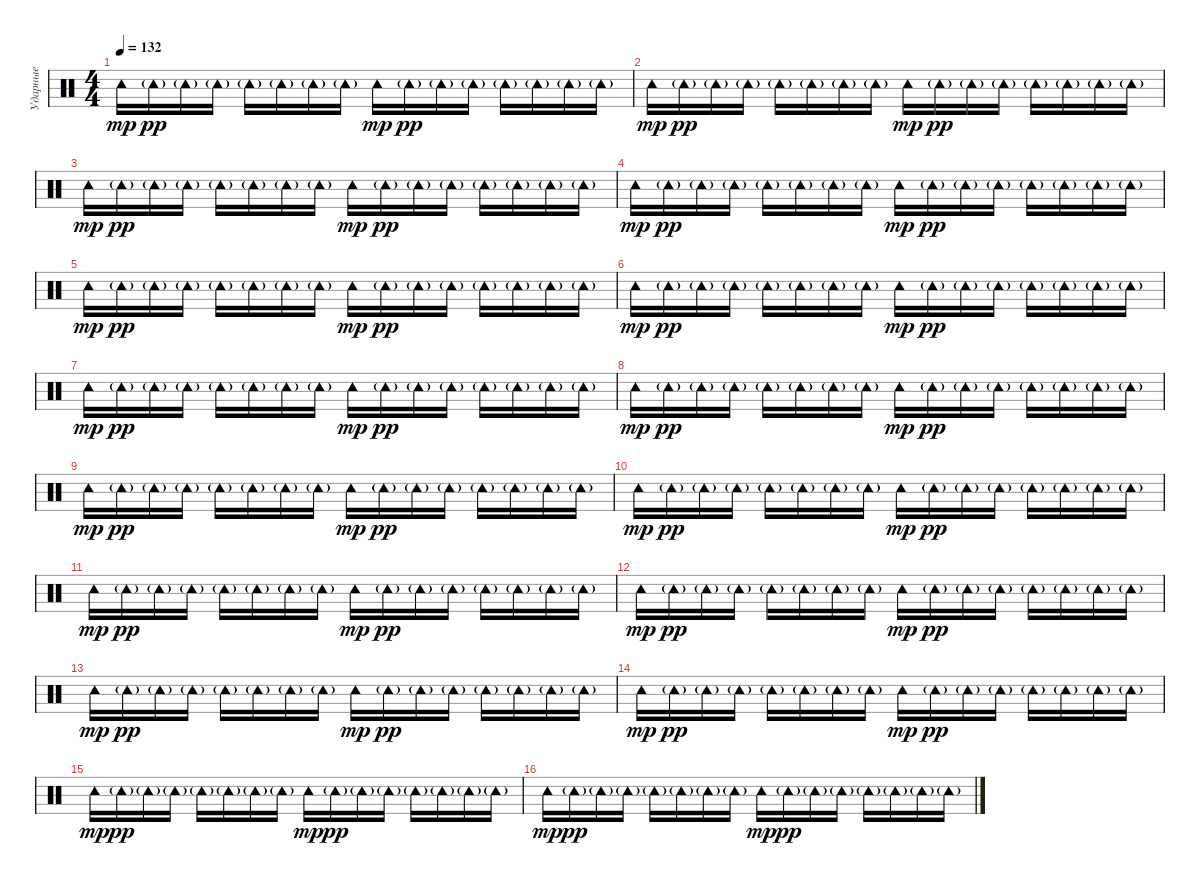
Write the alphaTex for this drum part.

\track ("Ударные" "Ударные") {instrument percussion}
\staff {score}
\articulation defaults
\ts (4 4)
\tempo 132
\clef neutral
\ks c "Tambourine (hit)".16{dy mp} "Tambourine (hit)"{g}.16{dy pp} "Tambourine (hit)"{g}.16 "Tambourine (hit)"{g}.16 "Tambourine (hit)"{g}.16 "Tambourine (hit)"{g}.16 "Tambourine (hit)"{g}.16 "Tambourine (hit)"{g}.16 "Tambourine (hit)".16{dy mp} "Tambourine (hit)"{g}.16{dy pp} "Tambourine (hit)"{g}.16 "Tambourine (hit)"{g}.16 "Tambourine (hit)"{g}.16 "Tambourine (hit)"{g}.16 "Tambourine (hit)"{g}.16 "Tambourine (hit)"{g}.16
|
"Tambourine (hit)".16{dy mp} "Tambourine (hit)"{g}.16{dy pp} "Tambourine (hit)"{g}.16 "Tambourine (hit)"{g}.16 "Tambourine (hit)"{g}.16 "Tambourine (hit)"{g}.16 "Tambourine (hit)"{g}.16 "Tambourine (hit)"{g}.16 "Tambourine (hit)".16{dy mp} "Tambourine (hit)"{g}.16{dy pp} "Tambourine (hit)"{g}.16 "Tambourine (hit)"{g}.16 "Tambourine (hit)"{g}.16 "Tambourine (hit)"{g}.16 "Tambourine (hit)"{g}.16 "Tambourine (hit)"{g}.16 |
"Tambourine (hit)".16{dy mp} "Tambourine (hit)"{g}.16{dy pp} "Tambourine (hit)"{g}.16 "Tambourine (hit)"{g}.16 "Tambourine (hit)"{g}.16 "Tambourine (hit)"{g}.16 "Tambourine (hit)"{g}.16 "Tambourine (hit)"{g}.16 "Tambourine (hit)".16{dy mp} "Tambourine (hit)"{g}.16{dy pp} "Tambourine (hit)"{g}.16 "Tambourine (hit)"{g}.16 "Tambourine (hit)"{g}.16 "Tambourine (hit)"{g}.16 "Tambourine (hit)"{g}.16 "Tambourine (hit)"{g}.16 |
"Tambourine (hit)".16{dy mp} "Tambourine (hit)"{g}.16{dy pp} "Tambourine (hit)"{g}.16 "Tambourine (hit)"{g}.16 "Tambourine (hit)"{g}.16 "Tambourine (hit)"{g}.16 "Tambourine (hit)"{g}.16 "Tambourine (hit)"{g}.16 "Tambourine (hit)".16{dy mp} "Tambourine (hit)"{g}.16{dy pp} "Tambourine (hit)"{g}.16 "Tambourine (hit)"{g}.16 "Tambourine (hit)"{g}.16 "Tambourine (hit)"{g}.16 "Tambourine (hit)"{g}.16 "Tambourine (hit)"{g}.16 |
"Tambourine (hit)".16{dy mp} "Tambourine (hit)"{g}.16{dy pp} "Tambourine (hit)"{g}.16 "Tambourine (hit)"{g}.16 "Tambourine (hit)"{g}.16 "Tambourine (hit)"{g}.16 "Tambourine (hit)"{g}.16 "Tambourine (hit)"{g}.16 "Tambourine (hit)".16{dy mp} "Tambourine (hit)"{g}.16{dy pp} "Tambourine (hit)"{g}.16 "Tambourine (hit)"{g}.16 "Tambourine (hit)"{g}.16 "Tambourine (hit)"{g}.16 "Tambourine (hit)"{g}.16 "Tambourine (hit)"{g}.16 |
"Tambourine (hit)".16{dy mp} "Tambourine (hit)"{g}.16{dy pp} "Tambourine (hit)"{g}.16 "Tambourine (hit)"{g}.16 "Tambourine (hit)"{g}.16 "Tambourine (hit)"{g}.16 "Tambourine (hit)"{g}.16 "Tambourine (hit)"{g}.16 "Tambourine (hit)".16{dy mp} "Tambourine (hit)"{g}.16{dy pp} "Tambourine (hit)"{g}.16 "Tambourine (hit)"{g}.16 "Tambourine (hit)"{g}.16 "Tambourine (hit)"{g}.16 "Tambourine (hit)"{g}.16 "Tambourine (hit)"{g}.16 |
"Tambourine (hit)".16{dy mp} "Tambourine (hit)"{g}.16{dy pp} "Tambourine (hit)"{g}.16 "Tambourine (hit)"{g}.16 "Tambourine (hit)"{g}.16 "Tambourine (hit)"{g}.16 "Tambourine (hit)"{g}.16 "Tambourine (hit)"{g}.16 "Tambourine (hit)".16{dy mp} "Tambourine (hit)"{g}.16{dy pp} "Tambourine (hit)"{g}.16 "Tambourine (hit)"{g}.16 "Tambourine (hit)"{g}.16 "Tambourine (hit)"{g}.16 "Tambourine (hit)"{g}.16 "Tambourine (hit)"{g}.16 |
"Tambourine (hit)".16{dy mp} "Tambourine (hit)"{g}.16{dy pp} "Tambourine (hit)"{g}.16 "Tambourine (hit)"{g}.16 "Tambourine (hit)"{g}.16 "Tambourine (hit)"{g}.16 "Tambourine (hit)"{g}.16 "Tambourine (hit)"{g}.16 "Tambourine (hit)".16{dy mp} "Tambourine (hit)"{g}.16{dy pp} "Tambourine (hit)"{g}.16 "Tambourine (hit)"{g}.16 "Tambourine (hit)"{g}.16 "Tambourine (hit)"{g}.16 "Tambourine (hit)"{g}.16 "Tambourine (hit)"{g}.16 |
"Tambourine (hit)".16{dy mp} "Tambourine (hit)"{g}.16{dy pp} "Tambourine (hit)"{g}.16 "Tambourine (hit)"{g}.16 "Tambourine (hit)"{g}.16 "Tambourine (hit)"{g}.16 "Tambourine (hit)"{g}.16 "Tambourine (hit)"{g}.16 "Tambourine (hit)".16{dy mp} "Tambourine (hit)"{g}.16{dy pp} "Tambourine (hit)"{g}.16 "Tambourine (hit)"{g}.16 "Tambourine (hit)"{g}.16 "Tambourine (hit)"{g}.16 "Tambourine (hit)"{g}.16 "Tambourine (hit)"{g}.16 |
"Tambourine (hit)".16{dy mp} "Tambourine (hit)"{g}.16{dy pp} "Tambourine (hit)"{g}.16 "Tambourine (hit)"{g}.16 "Tambourine (hit)"{g}.16 "Tambourine (hit)"{g}.16 "Tambourine (hit)"{g}.16 "Tambourine (hit)"{g}.16 "Tambourine (hit)".16{dy mp} "Tambourine (hit)"{g}.16{dy pp} "Tambourine (hit)"{g}.16 "Tambourine (hit)"{g}.16 "Tambourine (hit)"{g}.16 "Tambourine (hit)"{g}.16 "Tambourine (hit)"{g}.16 "Tambourine (hit)"{g}.16 |
"Tambourine (hit)".16{dy mp} "Tambourine (hit)"{g}.16{dy pp} "Tambourine (hit)"{g}.16 "Tambourine (hit)"{g}.16 "Tambourine (hit)"{g}.16 "Tambourine (hit)"{g}.16 "Tambourine (hit)"{g}.16 "Tambourine (hit)"{g}.16 "Tambourine (hit)".16{dy mp} "Tambourine (hit)"{g}.16{dy pp} "Tambourine (hit)"{g}.16 "Tambourine (hit)"{g}.16 "Tambourine (hit)"{g}.16 "Tambourine (hit)"{g}.16 "Tambourine (hit)"{g}.16 "Tambourine (hit)"{g}.16 |
"Tambourine (hit)".16{dy mp} "Tambourine (hit)"{g}.16{dy pp} "Tambourine (hit)"{g}.16 "Tambourine (hit)"{g}.16 "Tambourine (hit)"{g}.16 "Tambourine (hit)"{g}.16 "Tambourine (hit)"{g}.16 "Tambourine (hit)"{g}.16 "Tambourine (hit)".16{dy mp} "Tambourine (hit)"{g}.16{dy pp} "Tambourine (hit)"{g}.16 "Tambourine (hit)"{g}.16 "Tambourine (hit)"{g}.16 "Tambourine (hit)"{g}.16 "Tambourine (hit)"{g}.16 "Tambourine (hit)"{g}.16 |
"Tambourine (hit)".16{dy mp} "Tambourine (hit)"{g}.16{dy pp} "Tambourine (hit)"{g}.16 "Tambourine (hit)"{g}.16 "Tambourine (hit)"{g}.16 "Tambourine (hit)"{g}.16 "Tambourine (hit)"{g}.16 "Tambourine (hit)"{g}.16 "Tambourine (hit)".16{dy mp} "Tambourine (hit)"{g}.16{dy pp} "Tambourine (hit)"{g}.16 "Tambourine (hit)"{g}.16 "Tambourine (hit)"{g}.16 "Tambourine (hit)"{g}.16 "Tambourine (hit)"{g}.16 "Tambourine (hit)"{g}.16 |
"Tambourine (hit)".16{dy mp} "Tambourine (hit)"{g}.16{dy pp} "Tambourine (hit)"{g}.16 "Tambourine (hit)"{g}.16 "Tambourine (hit)"{g}.16 "Tambourine (hit)"{g}.16 "Tambourine (hit)"{g}.16 "Tambourine (hit)"{g}.16 "Tambourine (hit)".16{dy mp} "Tambourine (hit)"{g}.16{dy pp} "Tambourine (hit)"{g}.16 "Tambourine (hit)"{g}.16 "Tambourine (hit)"{g}.16 "Tambourine (hit)"{g}.16 "Tambourine (hit)"{g}.16 "Tambourine (hit)"{g}.16 |
"Tambourine (hit)".16{dy mp} "Tambourine (hit)"{g}.16{dy pp} "Tambourine (hit)"{g}.16 "Tambourine (hit)"{g}.16 "Tambourine (hit)"{g}.16 "Tambourine (hit)"{g}.16 "Tambourine (hit)"{g}.16 "Tambourine (hit)"{g}.16 "Tambourine (hit)".16{dy mp} "Tambourine (hit)"{g}.16{dy pp} "Tambourine (hit)"{g}.16 "Tambourine (hit)"{g}.16 "Tambourine (hit)"{g}.16 "Tambourine (hit)"{g}.16 "Tambourine (hit)"{g}.16 "Tambourine (hit)"{g}.16 |
"Tambourine (hit)".16{dy mp} "Tambourine (hit)"{g}.16{dy pp} "Tambourine (hit)"{g}.16 "Tambourine (hit)"{g}.16 "Tambourine (hit)"{g}.16 "Tambourine (hit)"{g}.16 "Tambourine (hit)"{g}.16 "Tambourine (hit)"{g}.16 "Tambourine (hit)".16{dy mp} "Tambourine (hit)"{g}.16{dy pp} "Tambourine (hit)"{g}.16 "Tambourine (hit)"{g}.16 "Tambourine (hit)"{g}.16 "Tambourine (hit)"{g}.16 "Tambourine (hit)"{g}.16 "Tambourine (hit)"{g}.16
